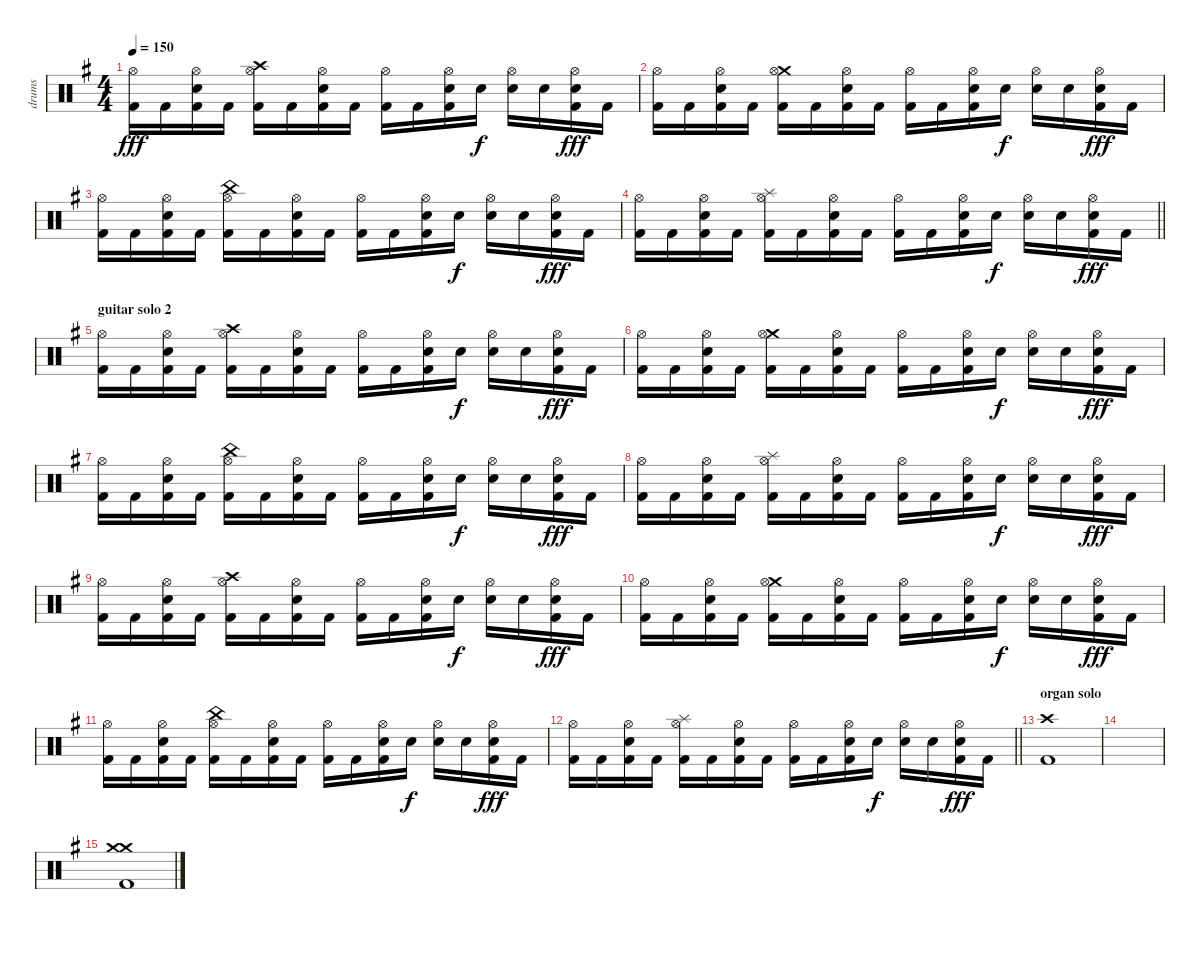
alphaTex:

\track ("drums" "drums") {instrument percussion}
\staff {score}
\articulation defaults
\ts (4 4)
\tempo 150
\clef neutral
\ks eminor
("Hi-Hat (open)" "Kick (hit) 2").16{dy fff} "Kick (hit) 2".16 ("Electric Snare (hit)" "Hi-Hat (open)" "Kick (hit) 2").16 "Kick (hit) 2".16 ("Crash high (hit)" "Hi-Hat (open)" "Kick (hit) 2").16 "Kick (hit) 2".16 ("Electric Snare (hit)" "Hi-Hat (open)" "Kick (hit) 2").16 "Kick (hit) 2".16 ("Hi-Hat (open)" "Kick (hit) 2").16 "Kick (hit) 2".16 ("Electric Snare (hit)" "Hi-Hat (open)" "Kick (hit) 2").16 "Electric Snare (hit)".16{dy f} ("Electric Snare (hit)" "Hi-Hat (open)").16 "Electric Snare (hit)".16 ("Electric Snare (hit)" "Hi-Hat (open)" "Kick (hit) 2").16{dy fff} "Kick (hit) 2".16 |
("Hi-Hat (open)" "Kick (hit) 2").16 "Kick (hit) 2".16 ("Electric Snare (hit)" "Hi-Hat (open)" "Kick (hit) 2").16 "Kick (hit) 2".16 ("Crash medium (hit)" "Hi-Hat (open)" "Kick (hit) 2").16 "Kick (hit) 2".16 ("Electric Snare (hit)" "Hi-Hat (open)" "Kick (hit) 2").16 "Kick (hit) 2".16 ("Hi-Hat (open)" "Kick (hit) 2").16 "Kick (hit) 2".16 ("Electric Snare (hit)" "Hi-Hat (open)" "Kick (hit) 2").16 "Electric Snare (hit)".16{dy f} ("Electric Snare (hit)" "Hi-Hat (open)").16 "Electric Snare (hit)".16 ("Electric Snare (hit)" "Hi-Hat (open)" "Kick (hit) 2").16{dy fff} "Kick (hit) 2".16 |
("Hi-Hat (open)" "Kick (hit) 2").16 "Kick (hit) 2".16 ("Electric Snare (hit)" "Hi-Hat (open)" "Kick (hit) 2").16 "Kick (hit) 2".16 ("China (hit)" "Hi-Hat (open)" "Kick (hit) 2").16 "Kick (hit) 2".16 ("Electric Snare (hit)" "Hi-Hat (open)" "Kick (hit) 2").16 "Kick (hit) 2".16 ("Hi-Hat (open)" "Kick (hit) 2").16 "Kick (hit) 2".16 ("Electric Snare (hit)" "Hi-Hat (open)" "Kick (hit) 2").16 "Electric Snare (hit)".16{dy f} ("Electric Snare (hit)" "Hi-Hat (open)").16 "Electric Snare (hit)".16 ("Electric Snare (hit)" "Hi-Hat (open)" "Kick (hit) 2").16{dy fff} "Kick (hit) 2".16 |
\barLineRight lightlight
("Hi-Hat (open)" "Kick (hit) 2").16 "Kick (hit) 2".16 ("Electric Snare (hit)" "Hi-Hat (open)" "Kick (hit) 2").16 "Kick (hit) 2".16 ("Splash (hit)" "Hi-Hat (open)" "Kick (hit) 2").16 "Kick (hit) 2".16 ("Electric Snare (hit)" "Hi-Hat (open)" "Kick (hit) 2").16 "Kick (hit) 2".16 ("Hi-Hat (open)" "Kick (hit) 2").16 "Kick (hit) 2".16 ("Electric Snare (hit)" "Hi-Hat (open)" "Kick (hit) 2").16 "Electric Snare (hit)".16{dy f} ("Electric Snare (hit)" "Hi-Hat (open)").16 "Electric Snare (hit)".16 ("Electric Snare (hit)" "Hi-Hat (open)" "Kick (hit) 2").16{dy fff} "Kick (hit) 2".16 |
\section ("" "guitar solo 2")
("Hi-Hat (open)" "Kick (hit) 2").16 "Kick (hit) 2".16 ("Electric Snare (hit)" "Hi-Hat (open)" "Kick (hit) 2").16 "Kick (hit) 2".16 ("Crash high (hit)" "Hi-Hat (open)" "Kick (hit) 2").16 "Kick (hit) 2".16 ("Electric Snare (hit)" "Hi-Hat (open)" "Kick (hit) 2").16 "Kick (hit) 2".16 ("Hi-Hat (open)" "Kick (hit) 2").16 "Kick (hit) 2".16 ("Electric Snare (hit)" "Hi-Hat (open)" "Kick (hit) 2").16 "Electric Snare (hit)".16{dy f} ("Electric Snare (hit)" "Hi-Hat (open)").16 "Electric Snare (hit)".16 ("Electric Snare (hit)" "Hi-Hat (open)" "Kick (hit) 2").16{dy fff} "Kick (hit) 2".16 |
("Hi-Hat (open)" "Kick (hit) 2").16 "Kick (hit) 2".16 ("Electric Snare (hit)" "Hi-Hat (open)" "Kick (hit) 2").16 "Kick (hit) 2".16 ("Crash medium (hit)" "Hi-Hat (open)" "Kick (hit) 2").16 "Kick (hit) 2".16 ("Electric Snare (hit)" "Hi-Hat (open)" "Kick (hit) 2").16 "Kick (hit) 2".16 ("Hi-Hat (open)" "Kick (hit) 2").16 "Kick (hit) 2".16 ("Electric Snare (hit)" "Hi-Hat (open)" "Kick (hit) 2").16 "Electric Snare (hit)".16{dy f} ("Electric Snare (hit)" "Hi-Hat (open)").16 "Electric Snare (hit)".16 ("Electric Snare (hit)" "Hi-Hat (open)" "Kick (hit) 2").16{dy fff} "Kick (hit) 2".16 |
("Hi-Hat (open)" "Kick (hit) 2").16 "Kick (hit) 2".16 ("Electric Snare (hit)" "Hi-Hat (open)" "Kick (hit) 2").16 "Kick (hit) 2".16 ("China (hit)" "Hi-Hat (open)" "Kick (hit) 2").16 "Kick (hit) 2".16 ("Electric Snare (hit)" "Hi-Hat (open)" "Kick (hit) 2").16 "Kick (hit) 2".16 ("Hi-Hat (open)" "Kick (hit) 2").16 "Kick (hit) 2".16 ("Electric Snare (hit)" "Hi-Hat (open)" "Kick (hit) 2").16 "Electric Snare (hit)".16{dy f} ("Electric Snare (hit)" "Hi-Hat (open)").16 "Electric Snare (hit)".16 ("Electric Snare (hit)" "Hi-Hat (open)" "Kick (hit) 2").16{dy fff} "Kick (hit) 2".16 |
("Hi-Hat (open)" "Kick (hit) 2").16 "Kick (hit) 2".16 ("Electric Snare (hit)" "Hi-Hat (open)" "Kick (hit) 2").16 "Kick (hit) 2".16 ("Splash (hit)" "Hi-Hat (open)" "Kick (hit) 2").16 "Kick (hit) 2".16 ("Electric Snare (hit)" "Hi-Hat (open)" "Kick (hit) 2").16 "Kick (hit) 2".16 ("Hi-Hat (open)" "Kick (hit) 2").16 "Kick (hit) 2".16 ("Electric Snare (hit)" "Hi-Hat (open)" "Kick (hit) 2").16 "Electric Snare (hit)".16{dy f} ("Electric Snare (hit)" "Hi-Hat (open)").16 "Electric Snare (hit)".16 ("Electric Snare (hit)" "Hi-Hat (open)" "Kick (hit) 2").16{dy fff} "Kick (hit) 2".16 |
("Hi-Hat (open)" "Kick (hit) 2").16 "Kick (hit) 2".16 ("Electric Snare (hit)" "Hi-Hat (open)" "Kick (hit) 2").16 "Kick (hit) 2".16 ("Crash high (hit)" "Hi-Hat (open)" "Kick (hit) 2").16 "Kick (hit) 2".16 ("Electric Snare (hit)" "Hi-Hat (open)" "Kick (hit) 2").16 "Kick (hit) 2".16 ("Hi-Hat (open)" "Kick (hit) 2").16 "Kick (hit) 2".16 ("Electric Snare (hit)" "Hi-Hat (open)" "Kick (hit) 2").16 "Electric Snare (hit)".16{dy f} ("Electric Snare (hit)" "Hi-Hat (open)").16 "Electric Snare (hit)".16 ("Electric Snare (hit)" "Hi-Hat (open)" "Kick (hit) 2").16{dy fff} "Kick (hit) 2".16 |
("Hi-Hat (open)" "Kick (hit) 2").16 "Kick (hit) 2".16 ("Electric Snare (hit)" "Hi-Hat (open)" "Kick (hit) 2").16 "Kick (hit) 2".16 ("Crash medium (hit)" "Hi-Hat (open)" "Kick (hit) 2").16 "Kick (hit) 2".16 ("Electric Snare (hit)" "Hi-Hat (open)" "Kick (hit) 2").16 "Kick (hit) 2".16 ("Hi-Hat (open)" "Kick (hit) 2").16 "Kick (hit) 2".16 ("Electric Snare (hit)" "Hi-Hat (open)" "Kick (hit) 2").16 "Electric Snare (hit)".16{dy f} ("Electric Snare (hit)" "Hi-Hat (open)").16 "Electric Snare (hit)".16 ("Electric Snare (hit)" "Hi-Hat (open)" "Kick (hit) 2").16{dy fff} "Kick (hit) 2".16 |
("Hi-Hat (open)" "Kick (hit) 2").16 "Kick (hit) 2".16 ("Electric Snare (hit)" "Hi-Hat (open)" "Kick (hit) 2").16 "Kick (hit) 2".16 ("China (hit)" "Hi-Hat (open)" "Kick (hit) 2").16 "Kick (hit) 2".16 ("Electric Snare (hit)" "Hi-Hat (open)" "Kick (hit) 2").16 "Kick (hit) 2".16 ("Hi-Hat (open)" "Kick (hit) 2").16 "Kick (hit) 2".16 ("Electric Snare (hit)" "Hi-Hat (open)" "Kick (hit) 2").16 "Electric Snare (hit)".16{dy f} ("Electric Snare (hit)" "Hi-Hat (open)").16 "Electric Snare (hit)".16 ("Electric Snare (hit)" "Hi-Hat (open)" "Kick (hit) 2").16{dy fff} "Kick (hit) 2".16 |
\barLineRight lightlight
("Hi-Hat (open)" "Kick (hit) 2").16 "Kick (hit) 2".16 ("Electric Snare (hit)" "Hi-Hat (open)" "Kick (hit) 2").16 "Kick (hit) 2".16 ("Splash (hit)" "Hi-Hat (open)" "Kick (hit) 2").16 "Kick (hit) 2".16 ("Electric Snare (hit)" "Hi-Hat (open)" "Kick (hit) 2").16 "Kick (hit) 2".16 ("Hi-Hat (open)" "Kick (hit) 2").16 "Kick (hit) 2".16 ("Electric Snare (hit)" "Hi-Hat (open)" "Kick (hit) 2").16 "Electric Snare (hit)".16{dy f} ("Electric Snare (hit)" "Hi-Hat (open)").16 "Electric Snare (hit)".16 ("Electric Snare (hit)" "Hi-Hat (open)" "Kick (hit) 2").16{dy fff} "Kick (hit) 2".16 |
\section ("" "organ solo")
("Crash high (hit)" "Kick (hit) 2").1 |
|
("Crash medium (hit)" "Crash medium (hit)" "Kick (hit) 2").1
